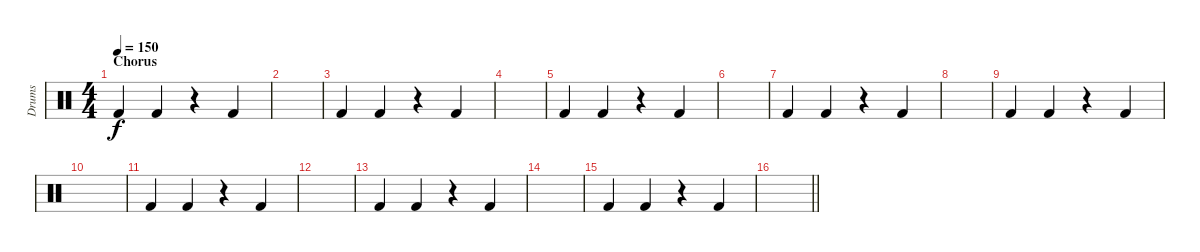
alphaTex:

\track ("Drums" "Drums") {instrument percussion}
\staff {score}
\articulation defaults
\ts (4 4)
\section ("" "Chorus")
\tempo 150
\clef neutral
\ks c "Kick (hit) 2".4{dy f} "Kick (hit) 2".4
r.4 "Kick (hit) 2".4 |
|
"Kick (hit) 2".4 "Kick (hit) 2".4 r.4 "Kick (hit) 2".4 |
|
"Kick (hit) 2".4 "Kick (hit) 2".4 r.4 "Kick (hit) 2".4 |
|
"Kick (hit) 2".4 "Kick (hit) 2".4 r.4 "Kick (hit) 2".4 |
|
"Kick (hit) 2".4 "Kick (hit) 2".4 r.4 "Kick (hit) 2".4 |
|
"Kick (hit) 2".4 "Kick (hit) 2".4 r.4 "Kick (hit) 2".4 |
|
"Kick (hit) 2".4 "Kick (hit) 2".4 r.4 "Kick (hit) 2".4 |
|
"Kick (hit) 2".4 "Kick (hit) 2".4 r.4 "Kick (hit) 2".4 |
\barLineRight lightlight
